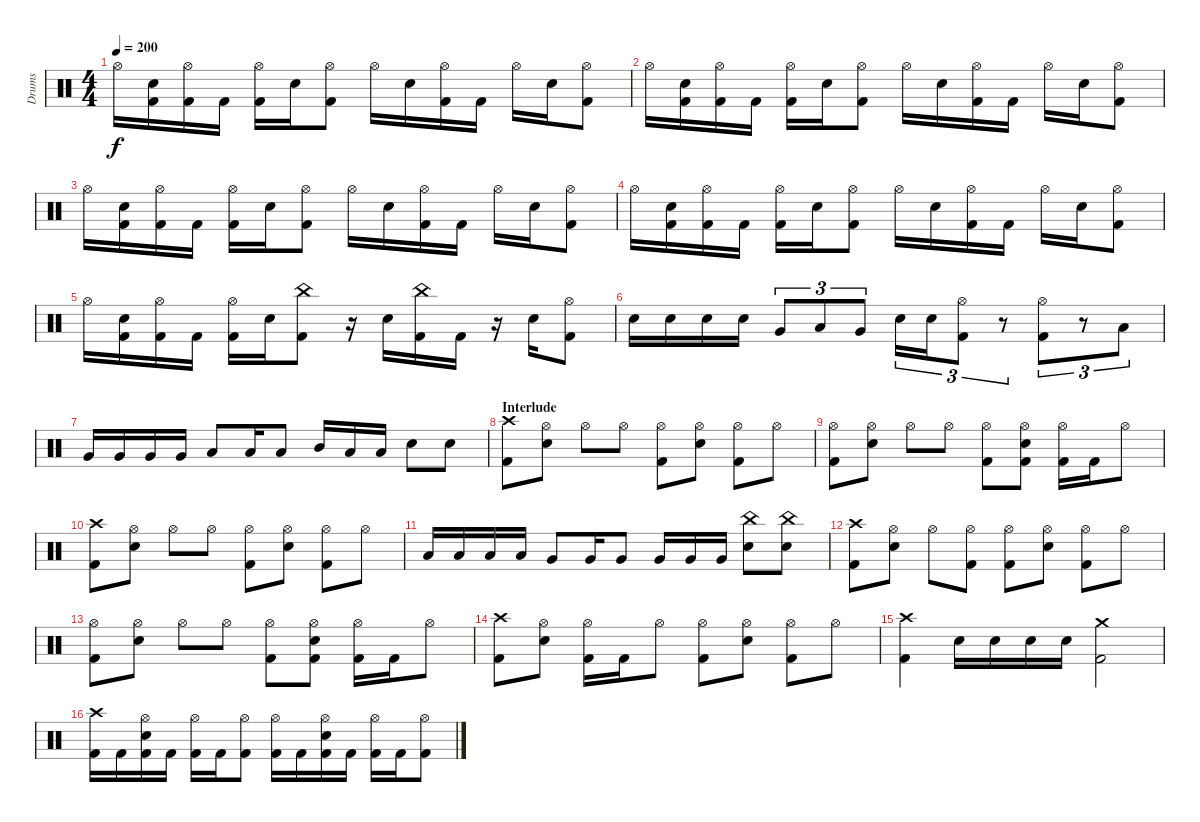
\track ("Drums" "Drums") {instrument percussion}
\staff {score}
\articulation defaults
\ts (4 4)
\tempo 200
\clef neutral
\ks c "Hi-Hat (open)".16{dy f}
("Electric Snare (hit)" "Kick (hit) 2").16 ("Hi-Hat (open)" "Kick (hit) 2").16 "Kick (hit) 2".16 ("Hi-Hat (open)" "Kick (hit) 2").16 "Electric Snare (hit)".16 ("Hi-Hat (open)" "Kick (hit) 2").8 "Hi-Hat (open)".16 "Electric Snare (hit)".16 ("Hi-Hat (open)" "Kick (hit) 2").16 "Kick (hit) 2".16 "Hi-Hat (open)".16 "Electric Snare (hit)".16 ("Hi-Hat (open)" "Kick (hit) 2").8 |
"Hi-Hat (open)".16 ("Electric Snare (hit)" "Kick (hit) 2").16 ("Hi-Hat (open)" "Kick (hit) 2").16 "Kick (hit) 2".16 ("Hi-Hat (open)" "Kick (hit) 2").16 "Electric Snare (hit)".16 ("Hi-Hat (open)" "Kick (hit) 2").8 "Hi-Hat (open)".16 "Electric Snare (hit)".16 ("Hi-Hat (open)" "Kick (hit) 2").16 "Kick (hit) 2".16 "Hi-Hat (open)".16 "Electric Snare (hit)".16 ("Hi-Hat (open)" "Kick (hit) 2").8 |
"Hi-Hat (open)".16 ("Electric Snare (hit)" "Kick (hit) 2").16 ("Hi-Hat (open)" "Kick (hit) 2").16 "Kick (hit) 2".16 ("Hi-Hat (open)" "Kick (hit) 2").16 "Electric Snare (hit)".16 ("Hi-Hat (open)" "Kick (hit) 2").8 "Hi-Hat (open)".16 "Electric Snare (hit)".16 ("Hi-Hat (open)" "Kick (hit) 2").16 "Kick (hit) 2".16 "Hi-Hat (open)".16 "Electric Snare (hit)".16 ("Hi-Hat (open)" "Kick (hit) 2").8 |
"Hi-Hat (open)".16 ("Electric Snare (hit)" "Kick (hit) 2").16 ("Hi-Hat (open)" "Kick (hit) 2").16 "Kick (hit) 2".16 ("Hi-Hat (open)" "Kick (hit) 2").16 "Electric Snare (hit)".16 ("Hi-Hat (open)" "Kick (hit) 2").8 "Hi-Hat (open)".16 "Electric Snare (hit)".16 ("Hi-Hat (open)" "Kick (hit) 2").16 "Kick (hit) 2".16 "Hi-Hat (open)".16 "Electric Snare (hit)".16 ("Hi-Hat (open)" "Kick (hit) 2").8 |
"Hi-Hat (open)".16 ("Electric Snare (hit)" "Kick (hit) 2").16 ("Hi-Hat (open)" "Kick (hit) 2").16 "Kick (hit) 2".16 ("Hi-Hat (open)" "Kick (hit) 2").16 "Electric Snare (hit)".16 ("China (hit)" "Kick (hit) 2").8 r.16 "Electric Snare (hit)".16 ("China (hit)" "Kick (hit) 2").16 "Kick (hit) 2".16 r.16 "Electric Snare (hit)".16 ("Hi-Hat (open)" "Kick (hit) 2").8 |
"Electric Snare (hit)".16 "Electric Snare (hit)".16 "Electric Snare (hit)".16 "Electric Snare (hit)".16 "Very Low Tom (hit)".8{tu (3 2)} "Low Floor Tom (hit)".8{tu (3 2)} "Very Low Tom (hit)".8{tu (3 2)} "Electric Snare (hit)".16{tu (3 2)} "Electric Snare (hit)".16{tu (3 2)} ("Hi-Hat (open)" "Kick (hit) 2").8{tu (3 2)} r.8{tu (3 2)} ("Hi-Hat (open)" "Kick (hit) 2").8{tu (3 2)} r.8{tu (3 2)} "Low Tom (hit)".8{tu (3 2)} |
"Very Low Tom (hit)".16 "Very Low Tom (hit)".16 "Very Low Tom (hit)".16 "Very Low Tom (hit)".16 "Low Floor Tom (hit)".8 "Low Floor Tom (hit)".16 "Low Floor Tom (hit)".8 "Mid Tom (hit)".16 "Low Tom (hit)".16 "Low Tom (hit)".16 "Electric Snare (hit)".8 "Electric Snare (hit)".8 |
\section ("" "Interlude ")
("Crash high (hit)" "Kick (hit) 2").8 ("Hi-Hat (open)" "Electric Snare (hit)").8 "Hi-Hat (open)".8 "Hi-Hat (open)".8 ("Hi-Hat (open)" "Kick (hit) 2").8 ("Hi-Hat (open)" "Electric Snare (hit)").8 ("Hi-Hat (open)" "Kick (hit) 2").8 "Hi-Hat (open)".8 |
("Hi-Hat (open)" "Kick (hit) 2").8 ("Hi-Hat (open)" "Electric Snare (hit)").8 "Hi-Hat (open)".8 "Hi-Hat (open)".8 ("Hi-Hat (open)" "Kick (hit) 2").8 ("Hi-Hat (open)" "Electric Snare (hit)" "Kick (hit) 2").8 ("Hi-Hat (open)" "Kick (hit) 2").16 "Kick (hit) 2".16 "Hi-Hat (open)".8 |
("Crash high (hit)" "Kick (hit) 2").8 ("Hi-Hat (open)" "Electric Snare (hit)").8 "Hi-Hat (open)".8 "Hi-Hat (open)".8 ("Hi-Hat (open)" "Kick (hit) 2").8 ("Hi-Hat (open)" "Electric Snare (hit)").8 ("Hi-Hat (open)" "Kick (hit) 2").8 "Hi-Hat (open)".8 |
"Low Tom (hit)".16 "Low Tom (hit)".16 "Low Tom (hit)".16 "Low Tom (hit)".16 "Very Low Tom (hit)".8 "Very Low Tom (hit)".16 "Very Low Tom (hit)".8 "Very Low Tom (hit)".16 "Very Low Tom (hit)".16 "Very Low Tom (hit)".16 ("China (hit)" "Electric Snare (hit)").8 ("China (hit)" "Electric Snare (hit)").8 |
("Crash high (hit)" "Kick (hit) 2").8 ("Hi-Hat (open)" "Electric Snare (hit)").8 "Hi-Hat (open)".8 ("Hi-Hat (open)" "Kick (hit) 2").8 ("Hi-Hat (open)" "Kick (hit) 2").8 ("Hi-Hat (open)" "Electric Snare (hit)").8 ("Hi-Hat (open)" "Kick (hit) 2").8 "Hi-Hat (open)".8 |
("Hi-Hat (open)" "Kick (hit) 2").8 ("Hi-Hat (open)" "Electric Snare (hit)").8 "Hi-Hat (open)".8 "Hi-Hat (open)".8 ("Hi-Hat (open)" "Kick (hit) 2").8 ("Hi-Hat (open)" "Electric Snare (hit)" "Kick (hit) 2").8 ("Hi-Hat (open)" "Kick (hit) 2").16 "Kick (hit) 2".16 "Hi-Hat (open)".8 |
("Crash high (hit)" "Kick (hit) 2").8 ("Hi-Hat (open)" "Electric Snare (hit)").8 ("Hi-Hat (open)" "Kick (hit) 2").16 "Kick (hit) 2".16 "Hi-Hat (open)".8 ("Hi-Hat (open)" "Kick (hit) 2").8 ("Hi-Hat (open)" "Electric Snare (hit)").8 ("Hi-Hat (open)" "Kick (hit) 2").8 "Hi-Hat (open)".8 |
("Crash high (hit)" "Kick (hit) 2").4 "Electric Snare (hit)".16 "Electric Snare (hit)".16 "Electric Snare (hit)".16 "Electric Snare (hit)".16 ("Crash medium (hit)" "Kick (hit) 2").2 |
("Crash high (hit)" "Kick (hit) 2").16 "Kick (hit) 2".16 ("Hi-Hat (open)" "Electric Snare (hit)" "Kick (hit) 2").16 "Kick (hit) 2".16 ("Hi-Hat (open)" "Kick (hit) 2").16 "Kick (hit) 2".16 ("Hi-Hat (open)" "Kick (hit) 2").8 ("Hi-Hat (open)" "Kick (hit) 2").16 "Kick (hit) 2".16 ("Hi-Hat (open)" "Electric Snare (hit)" "Kick (hit) 2").16 "Kick (hit) 2".16 ("Hi-Hat (open)" "Kick (hit) 2").16 "Kick (hit) 2".16 ("Hi-Hat (open)" "Kick (hit) 2").8
